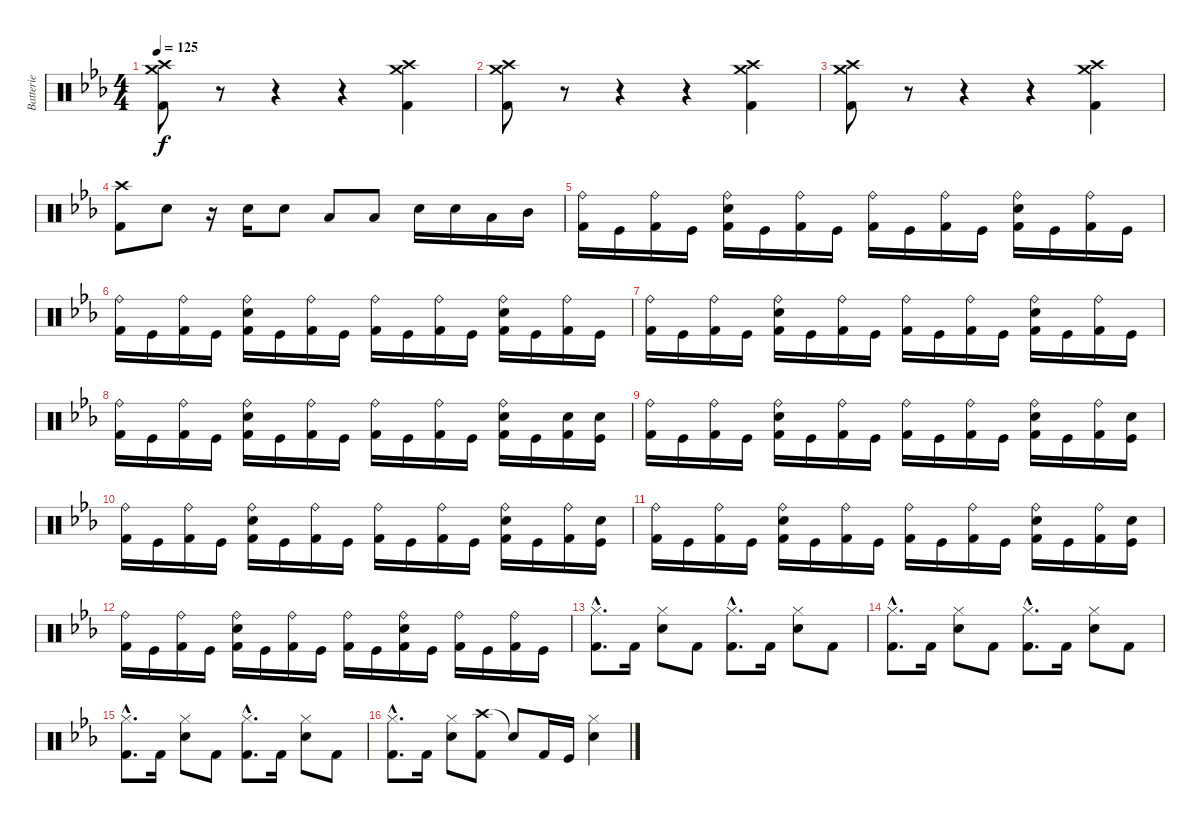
\track ("Batterie" "Batterie") {instrument percussion}
\staff {score}
\articulation defaults
\ts (4 4)
\tempo 125
\clef neutral
\ks eb
("Crash high (hit)" "Crash medium (hit)" "Kick (hit) 2").8{dy f} r.8 r.4 r.4 ("Crash high (hit)" "Crash medium (hit)" "Kick (hit) 2").4 |
("Crash high (hit)" "Crash medium (hit)" "Kick (hit) 2").8 r.8 r.4 r.4 ("Crash high (hit)" "Crash medium (hit)" "Kick (hit) 2").4 |
("Crash high (hit)" "Crash medium (hit)" "Kick (hit) 2").8 r.8 r.4 r.4 ("Crash high (hit)" "Crash medium (hit)" "Kick (hit) 2").4 |
("Crash high (hit)" "Kick (hit) 2").8 "Electric Snare (hit)".8 r.16 "Electric Snare (hit)".16 "Electric Snare (hit)".8 "Low Tom (hit)".8 "Low Tom (hit)".8 "Electric Snare (hit)".16 "Electric Snare (hit)".16 "Low Tom (hit)".16 "Mid Tom (hit)".16 |
("Ride (bell)" "Kick (hit) 2").16 "Kick (hit)".16 ("Ride (bell)" "Kick (hit) 2").16 "Kick (hit)".16 ("Ride (bell)" "Electric Snare (hit)" "Kick (hit) 2").16 "Kick (hit)".16 ("Ride (bell)" "Kick (hit) 2").16 "Kick (hit)".16 ("Ride (bell)" "Kick (hit) 2").16 "Kick (hit)".16 ("Ride (bell)" "Kick (hit) 2").16 "Kick (hit)".16 ("Ride (bell)" "Electric Snare (hit)" "Kick (hit) 2").16 "Kick (hit)".16 ("Ride (bell)" "Kick (hit) 2").16 "Kick (hit)".16 |
("Ride (bell)" "Kick (hit) 2").16 "Kick (hit)".16 ("Ride (bell)" "Kick (hit) 2").16 "Kick (hit)".16 ("Ride (bell)" "Electric Snare (hit)" "Kick (hit) 2").16 "Kick (hit)".16 ("Ride (bell)" "Kick (hit) 2").16 "Kick (hit)".16 ("Ride (bell)" "Kick (hit) 2").16 "Kick (hit)".16 ("Ride (bell)" "Kick (hit) 2").16 "Kick (hit)".16 ("Ride (bell)" "Electric Snare (hit)" "Kick (hit) 2").16 "Kick (hit)".16 ("Ride (bell)" "Kick (hit) 2").16 "Kick (hit)".16 |
("Ride (bell)" "Kick (hit) 2").16 "Kick (hit)".16 ("Ride (bell)" "Kick (hit) 2").16 "Kick (hit)".16 ("Ride (bell)" "Electric Snare (hit)" "Kick (hit) 2").16 "Kick (hit)".16 ("Ride (bell)" "Kick (hit) 2").16 "Kick (hit)".16 ("Ride (bell)" "Kick (hit) 2").16 "Kick (hit)".16 ("Ride (bell)" "Kick (hit) 2").16 "Kick (hit)".16 ("Ride (bell)" "Electric Snare (hit)" "Kick (hit) 2").16 "Kick (hit)".16 ("Ride (bell)" "Kick (hit) 2").16 "Kick (hit)".16 |
("Ride (bell)" "Kick (hit) 2").16 "Kick (hit)".16 ("Ride (bell)" "Kick (hit) 2").16 "Kick (hit)".16 ("Ride (bell)" "Electric Snare (hit)" "Kick (hit) 2").16 "Kick (hit)".16 ("Ride (bell)" "Kick (hit) 2").16 "Kick (hit)".16 ("Ride (bell)" "Kick (hit) 2").16 "Kick (hit)".16 ("Ride (bell)" "Kick (hit) 2").16 "Kick (hit)".16 ("Ride (bell)" "Electric Snare (hit)" "Kick (hit) 2").16 "Kick (hit)".16 ("Electric Snare (hit)" "Kick (hit) 2").16 ("Electric Snare (hit)" "Kick (hit)").16 |
("Ride (bell)" "Kick (hit) 2").16 "Kick (hit)".16 ("Ride (bell)" "Kick (hit) 2").16 "Kick (hit)".16 ("Ride (bell)" "Electric Snare (hit)" "Kick (hit) 2").16 "Kick (hit)".16 ("Ride (bell)" "Kick (hit) 2").16 "Kick (hit)".16 ("Ride (bell)" "Kick (hit) 2").16 "Kick (hit)".16 ("Ride (bell)" "Kick (hit) 2").16 "Kick (hit)".16 ("Ride (bell)" "Electric Snare (hit)" "Kick (hit) 2").16 "Kick (hit)".16 ("Ride (bell)" "Kick (hit) 2").16 ("Electric Snare (hit)" "Kick (hit)").16 |
("Ride (bell)" "Kick (hit) 2").16 "Kick (hit)".16 ("Ride (bell)" "Kick (hit) 2").16 "Kick (hit)".16 ("Ride (bell)" "Electric Snare (hit)" "Kick (hit) 2").16 "Kick (hit)".16 ("Ride (bell)" "Kick (hit) 2").16 "Kick (hit)".16 ("Ride (bell)" "Kick (hit) 2").16 "Kick (hit)".16 ("Ride (bell)" "Kick (hit) 2").16 "Kick (hit)".16 ("Ride (bell)" "Electric Snare (hit)" "Kick (hit) 2").16 "Kick (hit)".16 ("Ride (bell)" "Kick (hit) 2").16 ("Electric Snare (hit)" "Kick (hit)").16 |
("Ride (bell)" "Kick (hit) 2").16 "Kick (hit)".16 ("Ride (bell)" "Kick (hit) 2").16 "Kick (hit)".16 ("Ride (bell)" "Electric Snare (hit)" "Kick (hit) 2").16 "Kick (hit)".16 ("Ride (bell)" "Kick (hit) 2").16 "Kick (hit)".16 ("Ride (bell)" "Kick (hit) 2").16 "Kick (hit)".16 ("Ride (bell)" "Kick (hit) 2").16 "Kick (hit)".16 ("Ride (bell)" "Electric Snare (hit)" "Kick (hit) 2").16 "Kick (hit)".16 ("Ride (bell)" "Kick (hit) 2").16 ("Electric Snare (hit)" "Kick (hit)").16 |
("Ride (bell)" "Kick (hit) 2").16 "Kick (hit)".16 ("Ride (bell)" "Kick (hit) 2").16 "Kick (hit)".16 ("Ride (bell)" "Electric Snare (hit)" "Kick (hit) 2").16 "Kick (hit)".16 ("Ride (bell)" "Kick (hit) 2").16 "Kick (hit)".16 ("Ride (bell)" "Kick (hit) 2").16 "Kick (hit)".16 ("Ride (bell)" "Electric Snare (hit)" "Kick (hit) 2").16 "Kick (hit)".16 ("Ride (bell)" "Kick (hit) 2").16 "Kick (hit)".16 ("Ride (bell)" "Kick (hit) 2").16 "Kick (hit)".16 |
("Hi-Hat (closed)"{hac} "Kick (hit) 2"{hac}).8{d} "Kick (hit) 2".16 ("Hi-Hat (closed)" "Electric Snare (hit)").8 "Kick (hit) 2".8 ("Hi-Hat (closed)"{hac} "Kick (hit) 2"{hac}).8{d} "Kick (hit) 2".16 ("Hi-Hat (closed)" "Electric Snare (hit)").8 "Kick (hit) 2".8 |
("Hi-Hat (closed)"{hac} "Kick (hit) 2"{hac}).8{d} "Kick (hit) 2".16 ("Hi-Hat (closed)" "Electric Snare (hit)").8 "Kick (hit) 2".8 ("Hi-Hat (closed)"{hac} "Kick (hit) 2"{hac}).8{d} "Kick (hit) 2".16 ("Hi-Hat (closed)" "Electric Snare (hit)").8 "Kick (hit) 2".8 |
("Hi-Hat (closed)"{hac} "Kick (hit) 2"{hac}).8{d} "Kick (hit) 2".16 ("Hi-Hat (closed)" "Electric Snare (hit)").8 "Kick (hit) 2".8 ("Hi-Hat (closed)"{hac} "Kick (hit) 2"{hac}).8{d} "Kick (hit) 2".16 ("Hi-Hat (closed)" "Electric Snare (hit)").8 "Kick (hit) 2".8 |
("Hi-Hat (closed)"{hac} "Kick (hit) 2"{hac}).8{d} "Kick (hit) 2".16 ("Hi-Hat (closed)" "Electric Snare (hit)").8 ("Crash high (hit)" "Kick (hit) 2").8 "Snare (hit)"{t}.8 "Kick (hit) 2".16 "Kick (hit)".16 ("Hi-Hat (closed)" "Electric Snare (hit)").4
